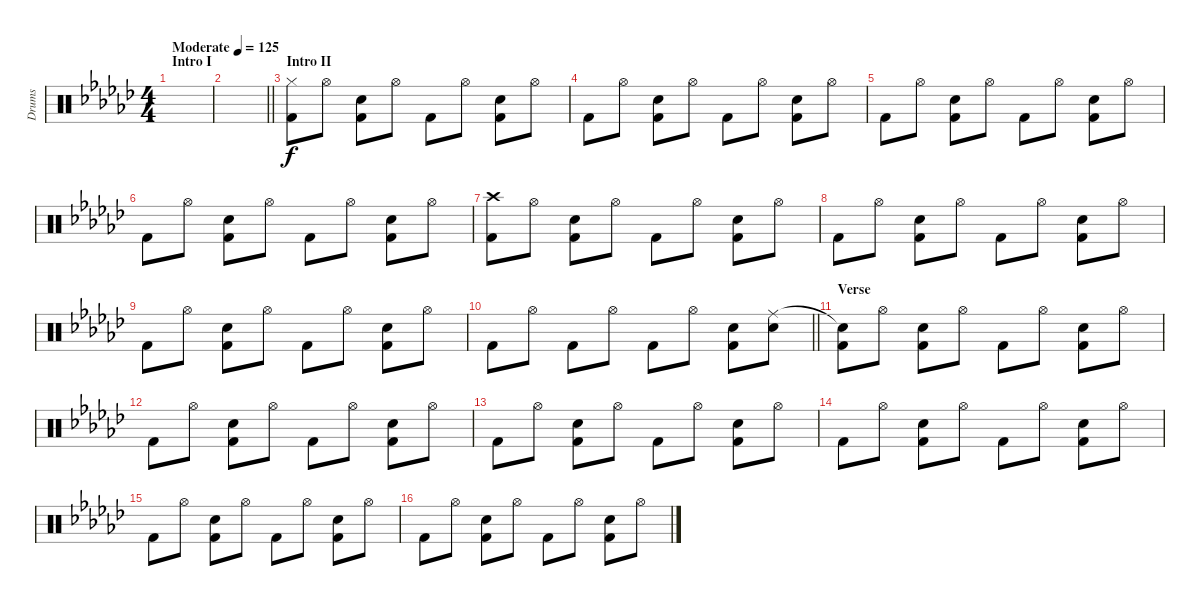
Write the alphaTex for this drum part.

\track ("Drums" "Drums") {instrument percussion}
\staff {score}
\articulation defaults
\ts (4 4)
\section ("" "Intro I")
\tempo (125 "Moderate")
\clef neutral
\ks gb
|
\barLineRight lightlight
|
\section ("" "Intro II")
("Hi-Hat (closed)" "Kick (hit) 2").8 "Hi-Hat (open)".8 ("Snare (hit) 2" "Kick (hit) 2").8 "Hi-Hat (open)".8 "Kick (hit) 2".8 "Hi-Hat (open)".8 ("Snare (hit) 2" "Kick (hit) 2").8 "Hi-Hat (open)".8 |
"Kick (hit) 2".8 "Hi-Hat (open)".8 ("Snare (hit) 2" "Kick (hit) 2").8 "Hi-Hat (open)".8 "Kick (hit) 2".8 "Hi-Hat (open)".8 ("Snare (hit) 2" "Kick (hit) 2").8 "Hi-Hat (open)".8 |
"Kick (hit) 2".8 "Hi-Hat (open)".8 ("Snare (hit) 2" "Kick (hit) 2").8 "Hi-Hat (open)".8 "Kick (hit) 2".8 "Hi-Hat (open)".8 ("Snare (hit) 2" "Kick (hit) 2").8 "Hi-Hat (open)".8 |
"Kick (hit) 2".8 "Hi-Hat (open)".8 ("Snare (hit) 2" "Kick (hit) 2").8 "Hi-Hat (open)".8 "Kick (hit) 2".8 "Hi-Hat (open)".8 ("Snare (hit) 2" "Kick (hit) 2").8 "Hi-Hat (open)".8 |
("Crash high (hit)" "Kick (hit) 2").8 "Hi-Hat (open)".8 ("Snare (hit) 2" "Kick (hit) 2").8 "Hi-Hat (open)".8 "Kick (hit) 2".8 "Hi-Hat (open)".8 ("Snare (hit) 2" "Kick (hit) 2").8 "Hi-Hat (open)".8 |
"Kick (hit) 2".8 "Hi-Hat (open)".8 ("Snare (hit) 2" "Kick (hit) 2").8 "Hi-Hat (open)".8 "Kick (hit) 2".8 "Hi-Hat (open)".8 ("Snare (hit) 2" "Kick (hit) 2").8 "Hi-Hat (open)".8 |
"Kick (hit) 2".8 "Hi-Hat (open)".8 ("Snare (hit) 2" "Kick (hit) 2").8 "Hi-Hat (open)".8 "Kick (hit) 2".8 "Hi-Hat (open)".8 ("Snare (hit) 2" "Kick (hit) 2").8 "Hi-Hat (open)".8 |
\barLineRight lightlight "Kick (hit) 2".8 "Hi-Hat (open)".8 "Kick (hit) 2".8 "Hi-Hat (open)".8 "Kick (hit) 2".8 "Hi-Hat (open)".8
("Snare (hit) 2" "Kick (hit) 2").8 ("Ride (middle)" "Snare (hit) 2").8 |
\section ("" "Verse")
("Snare (hit)"{t} "Kick (hit) 2").8 "Hi-Hat (open)".8 ("Snare (hit) 2" "Kick (hit) 2").8 "Hi-Hat (open)".8 "Kick (hit) 2".8 "Hi-Hat (open)".8 ("Snare (hit) 2" "Kick (hit) 2").8 "Hi-Hat (open)".8 |
"Kick (hit) 2".8 "Hi-Hat (open)".8 ("Snare (hit) 2" "Kick (hit) 2").8 "Hi-Hat (open)".8 "Kick (hit) 2".8 "Hi-Hat (open)".8 ("Snare (hit) 2" "Kick (hit) 2").8 "Hi-Hat (open)".8 |
"Kick (hit) 2".8 "Hi-Hat (open)".8 ("Snare (hit) 2" "Kick (hit) 2").8 "Hi-Hat (open)".8 "Kick (hit) 2".8 "Hi-Hat (open)".8 ("Snare (hit) 2" "Kick (hit) 2").8 "Hi-Hat (open)".8 |
"Kick (hit) 2".8 "Hi-Hat (open)".8 ("Snare (hit) 2" "Kick (hit) 2").8 "Hi-Hat (open)".8 "Kick (hit) 2".8 "Hi-Hat (open)".8 ("Snare (hit) 2" "Kick (hit) 2").8 "Hi-Hat (open)".8 |
"Kick (hit) 2".8 "Hi-Hat (open)".8 ("Snare (hit) 2" "Kick (hit) 2").8 "Hi-Hat (open)".8 "Kick (hit) 2".8 "Hi-Hat (open)".8 ("Snare (hit) 2" "Kick (hit) 2").8 "Hi-Hat (open)".8 |
"Kick (hit) 2".8 "Hi-Hat (open)".8 ("Snare (hit) 2" "Kick (hit) 2").8 "Hi-Hat (open)".8 "Kick (hit) 2".8 "Hi-Hat (open)".8 ("Snare (hit) 2" "Kick (hit) 2").8 "Hi-Hat (open)".8
